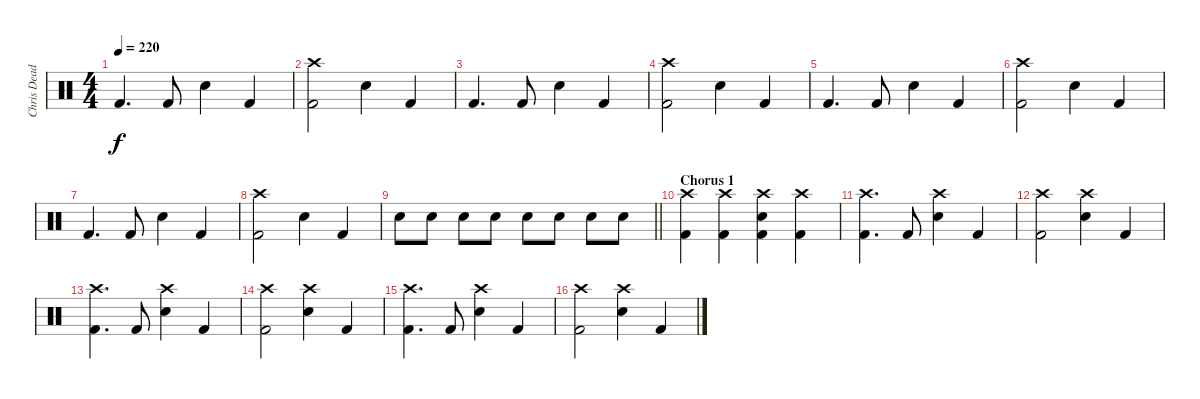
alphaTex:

\track ("Chris Dead" "Chris Dead") {instrument percussion}
\staff {score}
\articulation defaults
\ts (4 4)
\tempo 220
\clef neutral
\ks c "Kick (hit) 2".4{d dy f} "Kick (hit) 2".8 "Electric Snare (hit)".4 "Kick (hit) 2".4
|
("Crash high (hit)" "Kick (hit) 2").2 "Electric Snare (hit)".4 "Kick (hit) 2".4 |
"Kick (hit) 2".4{d} "Kick (hit) 2".8 "Electric Snare (hit)".4 "Kick (hit) 2".4 |
("Crash high (hit)" "Kick (hit) 2").2 "Electric Snare (hit)".4 "Kick (hit) 2".4 |
"Kick (hit) 2".4{d} "Kick (hit) 2".8 "Electric Snare (hit)".4 "Kick (hit) 2".4 |
("Crash high (hit)" "Kick (hit) 2").2 "Electric Snare (hit)".4 "Kick (hit) 2".4 |
"Kick (hit) 2".4{d} "Kick (hit) 2".8 "Electric Snare (hit)".4 "Kick (hit) 2".4 |
("Crash high (hit)" "Kick (hit) 2").2 "Electric Snare (hit)".4 "Kick (hit) 2".4 |
\barLineRight lightlight "Electric Snare (hit)".8 "Electric Snare (hit)".8 "Electric Snare (hit)".8 "Electric Snare (hit)".8 "Electric Snare (hit)".8 "Electric Snare (hit)".8 "Electric Snare (hit)".8 "Electric Snare (hit)".8
|
\section ("" "Chorus 1")
("Crash high (hit)" "Kick (hit) 2").4 ("Crash high (hit)" "Kick (hit) 2").4 ("Crash high (hit)" "Electric Snare (hit)" "Kick (hit) 2").4 ("Crash high (hit)" "Kick (hit) 2").4 |
("Crash high (hit)" "Kick (hit) 2").4{d} "Kick (hit) 2".8 ("Crash high (hit)" "Electric Snare (hit)").4 "Kick (hit) 2".4 |
("Crash high (hit)" "Kick (hit) 2").2 ("Crash high (hit)" "Electric Snare (hit)").4 "Kick (hit) 2".4 |
("Crash high (hit)" "Kick (hit) 2").4{d} "Kick (hit) 2".8 ("Crash high (hit)" "Electric Snare (hit)").4 "Kick (hit) 2".4 |
("Crash high (hit)" "Kick (hit) 2").2 ("Crash high (hit)" "Electric Snare (hit)").4 "Kick (hit) 2".4 |
("Crash high (hit)" "Kick (hit) 2").4{d} "Kick (hit) 2".8 ("Crash high (hit)" "Electric Snare (hit)").4 "Kick (hit) 2".4 |
("Crash high (hit)" "Kick (hit) 2").2 ("Crash high (hit)" "Electric Snare (hit)").4 "Kick (hit) 2".4
